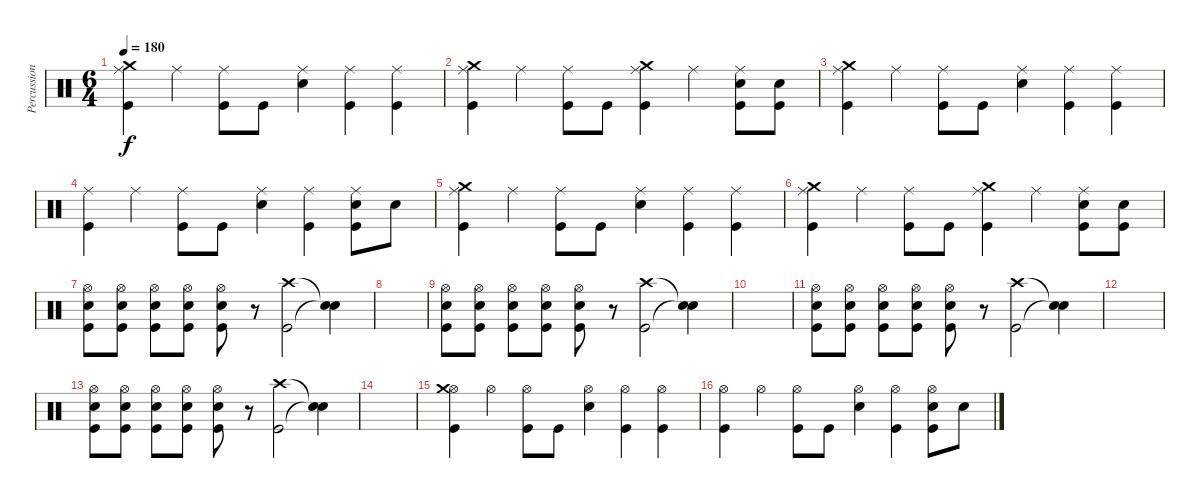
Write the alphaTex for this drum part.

\track ("Percussion" "Percussion") {instrument percussion}
\staff {score}
\articulation defaults
\ts (6 4)
\tempo 180
\clef neutral
\ks c
("Ride (middle)" "Crash medium (hit)" "Kick (hit)").4{dy f} "Ride (middle)".4 ("Ride (middle)" "Kick (hit)").8 "Kick (hit)".8 ("Ride (middle)" "Electric Snare (hit)").4 ("Ride (middle)" "Kick (hit)").4 ("Ride (middle)" "Kick (hit)").4 |
("Ride (middle)" "Crash medium (hit)" "Kick (hit)").4 "Ride (middle)".4 ("Ride (middle)" "Kick (hit)").8 "Kick (hit)".8 ("Ride (middle)" "Crash medium (hit)" "Kick (hit)").4 "Ride (middle)".4 ("Ride (middle)" "Electric Snare (hit)" "Kick (hit)").8 ("Electric Snare (hit)" "Kick (hit)").8 |
("Ride (middle)" "Crash medium (hit)" "Kick (hit)").4 "Ride (middle)".4 ("Ride (middle)" "Kick (hit)").8 "Kick (hit)".8 ("Ride (middle)" "Electric Snare (hit)").4 ("Ride (middle)" "Kick (hit)").4 ("Ride (middle)" "Kick (hit)").4 |
("Ride (middle)" "Kick (hit)").4 "Ride (middle)".4 ("Ride (middle)" "Kick (hit)").8 "Kick (hit)".8 ("Ride (middle)" "Electric Snare (hit)").4 ("Ride (middle)" "Kick (hit)").4 ("Ride (middle)" "Electric Snare (hit)" "Kick (hit)").8 "Electric Snare (hit)".8 |
("Ride (middle)" "Crash medium (hit)" "Kick (hit)").4 "Ride (middle)".4 ("Ride (middle)" "Kick (hit)").8 "Kick (hit)".8 ("Ride (middle)" "Electric Snare (hit)").4 ("Ride (middle)" "Kick (hit)").4 ("Ride (middle)" "Kick (hit)").4 |
("Ride (middle)" "Crash medium (hit)" "Kick (hit)").4 "Ride (middle)".4 ("Ride (middle)" "Kick (hit)").8 "Kick (hit)".8 ("Ride (middle)" "Crash medium (hit)" "Kick (hit)").4 "Ride (middle)".4 ("Ride (middle)" "Electric Snare (hit)" "Kick (hit)").8 ("Electric Snare (hit)" "Kick (hit)").8 |
("Hi-Hat (open)" "Electric Snare (hit)" "Kick (hit)").8 ("Hi-Hat (open)" "Electric Snare (hit)" "Kick (hit)").8 ("Hi-Hat (open)" "Electric Snare (hit)" "Kick (hit)").8 ("Hi-Hat (open)" "Electric Snare (hit)" "Kick (hit)").8 ("Hi-Hat (open)" "Electric Snare (hit)" "Kick (hit)").8 r.8 ("Crash high (hit)" "Kick (hit)").2 ("Snare (hit)"{t} "Snare (hit)"{t}).4 |
|
("Hi-Hat (open)" "Electric Snare (hit)" "Kick (hit)").8 ("Hi-Hat (open)" "Electric Snare (hit)" "Kick (hit)").8 ("Hi-Hat (open)" "Electric Snare (hit)" "Kick (hit)").8 ("Hi-Hat (open)" "Electric Snare (hit)" "Kick (hit)").8 ("Hi-Hat (open)" "Electric Snare (hit)" "Kick (hit)").8 r.8 ("Crash high (hit)" "Kick (hit)").2 ("Snare (hit)"{t} "Snare (hit)"{t}).4 |
|
("Hi-Hat (open)" "Electric Snare (hit)" "Kick (hit)").8 ("Hi-Hat (open)" "Electric Snare (hit)" "Kick (hit)").8 ("Hi-Hat (open)" "Electric Snare (hit)" "Kick (hit)").8 ("Hi-Hat (open)" "Electric Snare (hit)" "Kick (hit)").8 ("Hi-Hat (open)" "Electric Snare (hit)" "Kick (hit)").8 r.8 ("Crash high (hit)" "Kick (hit)").2 ("Snare (hit)"{t} "Snare (hit)"{t}).4 |
|
("Hi-Hat (open)" "Electric Snare (hit)" "Kick (hit)").8 ("Hi-Hat (open)" "Electric Snare (hit)" "Kick (hit)").8 ("Hi-Hat (open)" "Electric Snare (hit)" "Kick (hit)").8 ("Hi-Hat (open)" "Electric Snare (hit)" "Kick (hit)").8 ("Hi-Hat (open)" "Electric Snare (hit)" "Kick (hit)").8 r.8 ("Crash high (hit)" "Kick (hit)").2 ("Snare (hit)"{t} "Snare (hit)"{t}).4 |
|
("Hi-Hat (open)" "Crash medium (hit)" "Kick (hit)").4 "Hi-Hat (open)".4 ("Hi-Hat (open)" "Kick (hit)").8 "Kick (hit)".8 ("Hi-Hat (open)" "Electric Snare (hit)").4 ("Hi-Hat (open)" "Kick (hit)").4 ("Hi-Hat (open)" "Kick (hit)").4 |
("Hi-Hat (open)" "Kick (hit)").4 "Hi-Hat (open)".4 ("Hi-Hat (open)" "Kick (hit)").8 "Kick (hit)".8 ("Hi-Hat (open)" "Electric Snare (hit)").4 ("Hi-Hat (open)" "Kick (hit)").4 ("Hi-Hat (open)" "Electric Snare (hit)" "Kick (hit)").8 "Electric Snare (hit)".8
